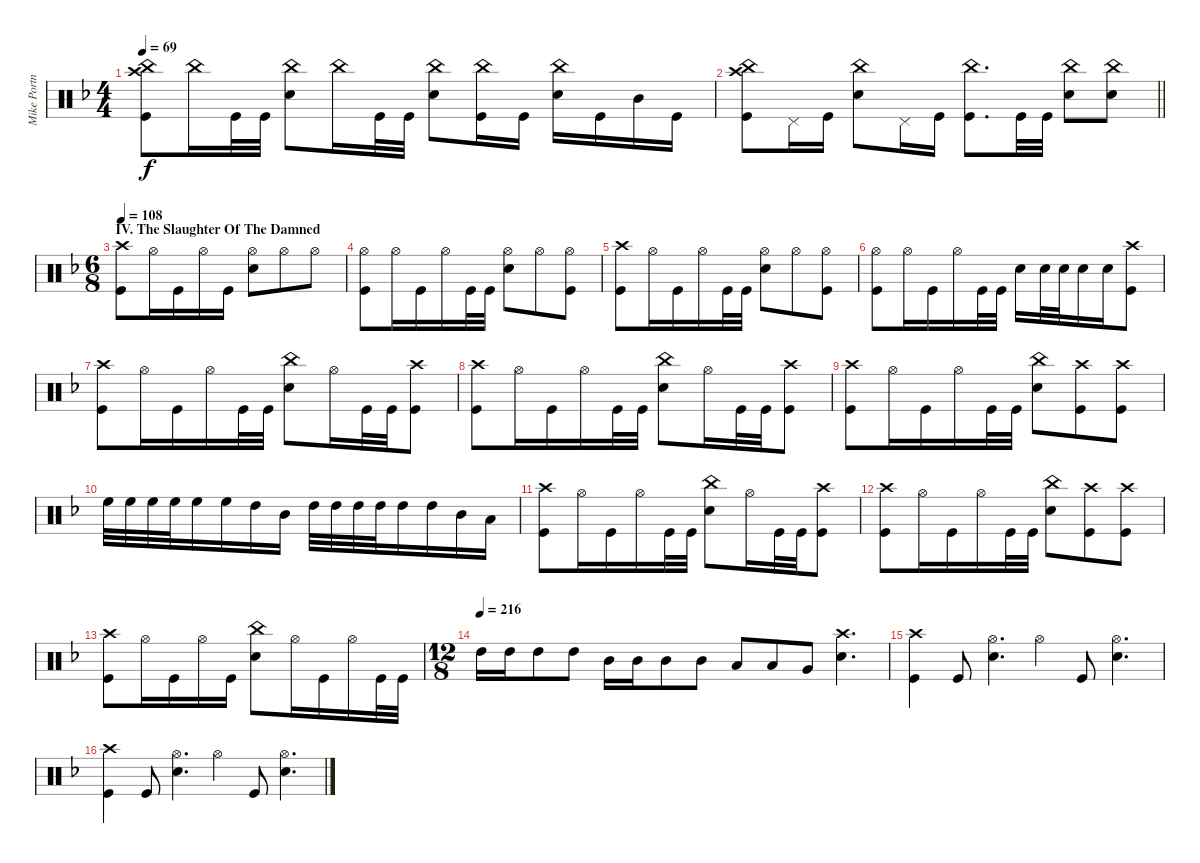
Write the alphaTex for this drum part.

\track ("Mike Portnoy - Drums" "Mike Portn") {instrument percussion}
\staff {score}
\articulation defaults
\ts (4 4)
\tempo 69
\clef neutral
\ks dminor
("China (hit)" "Crash high (hit)" "Kick (hit)").8{dy f} "China (hit)".16 "Kick (hit)".32 "Kick (hit)".32 ("China (hit)" "Snare (hit) 2").8 "China (hit)".16 "Kick (hit)".32 "Kick (hit)".32 ("China (hit)" "Snare (hit) 2").8 ("China (hit)" "Kick (hit)").16 "Kick (hit)".16 ("China (hit)" "Snare (hit) 2").16 "Kick (hit)".16 "Mid Tom (hit)".16 "Kick (hit)".16 |
\barLineRight lightlight
("China (hit)" "Crash high (hit)" "Kick (hit)").8 "Pedal Hi-Hat (hit)".16 "Kick (hit)".16 ("China (hit)" "Snare (hit) 2").8 "Pedal Hi-Hat (hit)".16 "Kick (hit)".16 ("China (hit)" "Kick (hit)").8{d} "Kick (hit)".32 "Kick (hit)".32 ("China (hit)" "Snare (hit) 2").8 ("China (hit)" "Snare (hit) 2").8 |
\ts (6 8)
\section ("" "IV. The Slaughter Of The Damned")
\tempo 108
("Crash high (hit)" "Kick (hit)").8 "Hi-Hat (open)".16 "Kick (hit)".16 "Hi-Hat (open)".16 "Kick (hit)".16 ("Hi-Hat (open)" "Snare (hit) 2").8 "Hi-Hat (open)".8 "Hi-Hat (open)".8 |
("Hi-Hat (open)" "Kick (hit)").8 "Hi-Hat (open)".16 "Kick (hit)".16 "Hi-Hat (open)".16 "Kick (hit)".32 "Kick (hit)".32 ("Hi-Hat (open)" "Snare (hit) 2").8 "Hi-Hat (open)".8 ("Hi-Hat (open)" "Kick (hit)").8 |
("Crash high (hit)" "Kick (hit)").8 "Hi-Hat (open)".16 "Kick (hit)".16 "Hi-Hat (open)".16 "Kick (hit)".32 "Kick (hit)".32 ("Hi-Hat (open)" "Snare (hit) 2").8 "Hi-Hat (open)".8 ("Hi-Hat (open)" "Kick (hit)").8 |
("Hi-Hat (open)" "Kick (hit)").8 "Hi-Hat (open)".16 "Kick (hit)".16 "Hi-Hat (open)".16 "Kick (hit)".32 "Kick (hit)".32 "Snare (hit) 2".16 "Snare (hit) 2".32 "Snare (hit) 2".32 "Snare (hit) 2".16 "Snare (hit) 2".16 ("Crash high (hit)" "Kick (hit)").8 |
("Crash high (hit)" "Kick (hit)").8 "Hi-Hat (open)".16 "Kick (hit)".16 "Hi-Hat (open)".16 "Kick (hit)".32 "Kick (hit)".32 ("China (hit)" "Snare (hit) 2").8 "Hi-Hat (open)".16 "Kick (hit)".32 "Kick (hit)".32 ("Crash high (hit)" "Kick (hit)").8 |
("Crash high (hit)" "Kick (hit)").8 "Hi-Hat (open)".16 "Kick (hit)".16 "Hi-Hat (open)".16 "Kick (hit)".32 "Kick (hit)".32 ("China (hit)" "Snare (hit) 2").8 "Hi-Hat (open)".16 "Kick (hit)".32 "Kick (hit)".32 ("Crash high (hit)" "Kick (hit)").8 |
("Crash high (hit)" "Kick (hit)").8 "Hi-Hat (open)".16 "Kick (hit)".16 "Hi-Hat (open)".16 "Kick (hit)".32 "Kick (hit)".32 ("China (hit)" "Snare (hit) 2").8 ("Crash high (hit)" "Kick (hit)").8 ("Crash high (hit)" "Kick (hit)").8 |
"High Floor Tom (hit)".32 "High Floor Tom (hit)".32 "High Floor Tom (hit)".32 "High Floor Tom (hit)".32 "High Floor Tom (hit)".16 "High Floor Tom (hit)".16 "High Tom (hit)".16 "Mid Tom (hit)".16 "High Tom (hit)".32 "High Tom (hit)".32 "High Tom (hit)".32 "High Tom (hit)".32 "High Tom (hit)".16 "High Tom (hit)".16 "Mid Tom (hit)".16 "Low Tom (hit)".16 |
("Crash high (hit)" "Kick (hit)").8 "Hi-Hat (open)".16 "Kick (hit)".16 "Hi-Hat (open)".16 "Kick (hit)".32 "Kick (hit)".32 ("China (hit)" "Snare (hit) 2").8 "Hi-Hat (open)".16 "Kick (hit)".32 "Kick (hit)".32 ("Crash high (hit)" "Kick (hit)").8 |
("Crash high (hit)" "Kick (hit)").8 "Hi-Hat (open)".16 "Kick (hit)".16 "Hi-Hat (open)".16 "Kick (hit)".32 "Kick (hit)".32 ("China (hit)" "Snare (hit) 2").8 ("Crash high (hit)" "Kick (hit)").8 ("Crash high (hit)" "Kick (hit)").8 |
("Crash high (hit)" "Kick (hit)").8 "Hi-Hat (open)".16 "Kick (hit)".16 "Hi-Hat (open)".16 "Kick (hit)".16 ("China (hit)" "Snare (hit) 2").8 "Hi-Hat (open)".16 "Kick (hit)".16 "Hi-Hat (open)".16 "Kick (hit)".32 "Kick (hit)".32 |
\ts (12 8)
\tempo (216)
"High Tom (hit)".16 "High Tom (hit)".16 "High Tom (hit)".8 "High Tom (hit)".8 "Mid Tom (hit)".16 "Mid Tom (hit)".16 "Mid Tom (hit)".8 "Mid Tom (hit)".8 "Low Tom (hit)".8 "Low Tom (hit)".8 "Very Low Tom (hit)".8 ("Crash high (hit)" "Snare (hit) 2").4{d} |
("Crash high (hit)" "Kick (hit)").4 "Kick (hit)".8 ("Hi-Hat (open)" "Snare (hit) 2").4{d} "Hi-Hat (open)".4 "Kick (hit)".8 ("Hi-Hat (open)" "Snare (hit) 2").4{d} |
("Crash high (hit)" "Kick (hit)").4 "Kick (hit)".8 ("Hi-Hat (open)" "Snare (hit) 2").4{d} "Hi-Hat (open)".4 "Kick (hit)".8 ("Hi-Hat (open)" "Snare (hit) 2").4{d}
